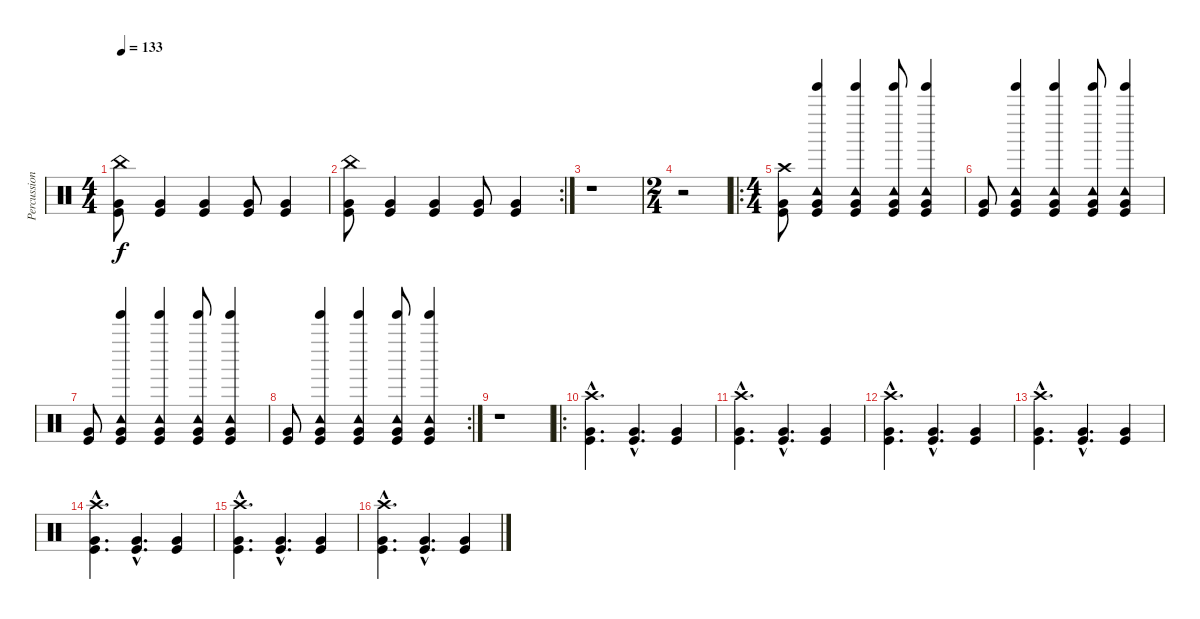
\track ("Percussion" "Percussion") {instrument percussion}
\staff {score}
\articulation defaults
\ts (4 4)
\tempo 133
\clef neutral
\ks c
("China (hit)" "Very Low Tom (hit)" "Kick (hit)").8{dy f} ("Very Low Tom (hit)" "Kick (hit)").4 ("Very Low Tom (hit)" "Kick (hit)").4 ("Very Low Tom (hit)" "Kick (hit)").8 ("Very Low Tom (hit)" "Kick (hit)").4 |
\rc 2
("China (hit)" "Very Low Tom (hit)" "Kick (hit)").8 ("Very Low Tom (hit)" "Kick (hit)").4 ("Very Low Tom (hit)" "Kick (hit)").4 ("Very Low Tom (hit)" "Kick (hit)").8 ("Very Low Tom (hit)" "Kick (hit)").4 |
r.1 |
\ts (2 4)
r.2 |
\ro
\ts (4 4)
("Very Low Tom (hit)" "Kick (hit)" "Crash high (hit)").8 ("Tinkle Bell (hit)" "Tambourine (hit)" "Very Low Tom (hit)" "Kick (hit)").4 ("Tinkle Bell (hit)" "Tambourine (hit)" "Very Low Tom (hit)" "Kick (hit)").4 ("Tinkle Bell (hit)" "Tambourine (hit)" "Very Low Tom (hit)" "Kick (hit)").8 ("Tinkle Bell (hit)" "Tambourine (hit)" "Very Low Tom (hit)" "Kick (hit)").4 |
("Very Low Tom (hit)" "Kick (hit)").8 ("Tinkle Bell (hit)" "Tambourine (hit)" "Very Low Tom (hit)" "Kick (hit)").4 ("Tinkle Bell (hit)" "Tambourine (hit)" "Very Low Tom (hit)" "Kick (hit)").4 ("Tinkle Bell (hit)" "Tambourine (hit)" "Very Low Tom (hit)" "Kick (hit)").8 ("Tinkle Bell (hit)" "Tambourine (hit)" "Very Low Tom (hit)" "Kick (hit)").4 |
("Very Low Tom (hit)" "Kick (hit)").8 ("Tinkle Bell (hit)" "Tambourine (hit)" "Very Low Tom (hit)" "Kick (hit)").4 ("Tinkle Bell (hit)" "Tambourine (hit)" "Very Low Tom (hit)" "Kick (hit)").4 ("Tinkle Bell (hit)" "Tambourine (hit)" "Very Low Tom (hit)" "Kick (hit)").8 ("Tinkle Bell (hit)" "Tambourine (hit)" "Very Low Tom (hit)" "Kick (hit)").4 |
\rc 2
("Very Low Tom (hit)" "Kick (hit)").8 ("Tinkle Bell (hit)" "Tambourine (hit)" "Very Low Tom (hit)" "Kick (hit)").4 ("Tinkle Bell (hit)" "Tambourine (hit)" "Very Low Tom (hit)" "Kick (hit)").4 ("Tinkle Bell (hit)" "Tambourine (hit)" "Very Low Tom (hit)" "Kick (hit)").8 ("Tinkle Bell (hit)" "Tambourine (hit)" "Very Low Tom (hit)" "Kick (hit)").4 |
r.1 |
\ro
("Crash high (hit)"{hac} "Very Low Tom (hit)"{hac} "Kick (hit)"{hac}).4{d} ("Very Low Tom (hit)"{hac} "Kick (hit)"{hac}).4{d} ("Very Low Tom (hit)" "Kick (hit)").4 |
("Crash high (hit)"{hac} "Very Low Tom (hit)"{hac} "Kick (hit)"{hac}).4{d} ("Very Low Tom (hit)"{hac} "Kick (hit)"{hac}).4{d} ("Very Low Tom (hit)" "Kick (hit)").4 |
("Crash high (hit)"{hac} "Very Low Tom (hit)"{hac} "Kick (hit)"{hac}).4{d} ("Very Low Tom (hit)"{hac} "Kick (hit)"{hac}).4{d} ("Very Low Tom (hit)" "Kick (hit)").4 |
("Crash high (hit)"{hac} "Very Low Tom (hit)"{hac} "Kick (hit)"{hac}).4{d} ("Very Low Tom (hit)"{hac} "Kick (hit)"{hac}).4{d} ("Very Low Tom (hit)" "Kick (hit)").4 |
("Crash high (hit)"{hac} "Very Low Tom (hit)"{hac} "Kick (hit)"{hac}).4{d} ("Very Low Tom (hit)"{hac} "Kick (hit)"{hac}).4{d} ("Very Low Tom (hit)" "Kick (hit)").4 |
("Crash high (hit)"{hac} "Very Low Tom (hit)"{hac} "Kick (hit)"{hac}).4{d} ("Very Low Tom (hit)"{hac} "Kick (hit)"{hac}).4{d} ("Very Low Tom (hit)" "Kick (hit)").4 |
("Crash high (hit)"{hac} "Very Low Tom (hit)"{hac} "Kick (hit)"{hac}).4{d} ("Very Low Tom (hit)"{hac} "Kick (hit)"{hac}).4{d} ("Very Low Tom (hit)" "Kick (hit)").4
